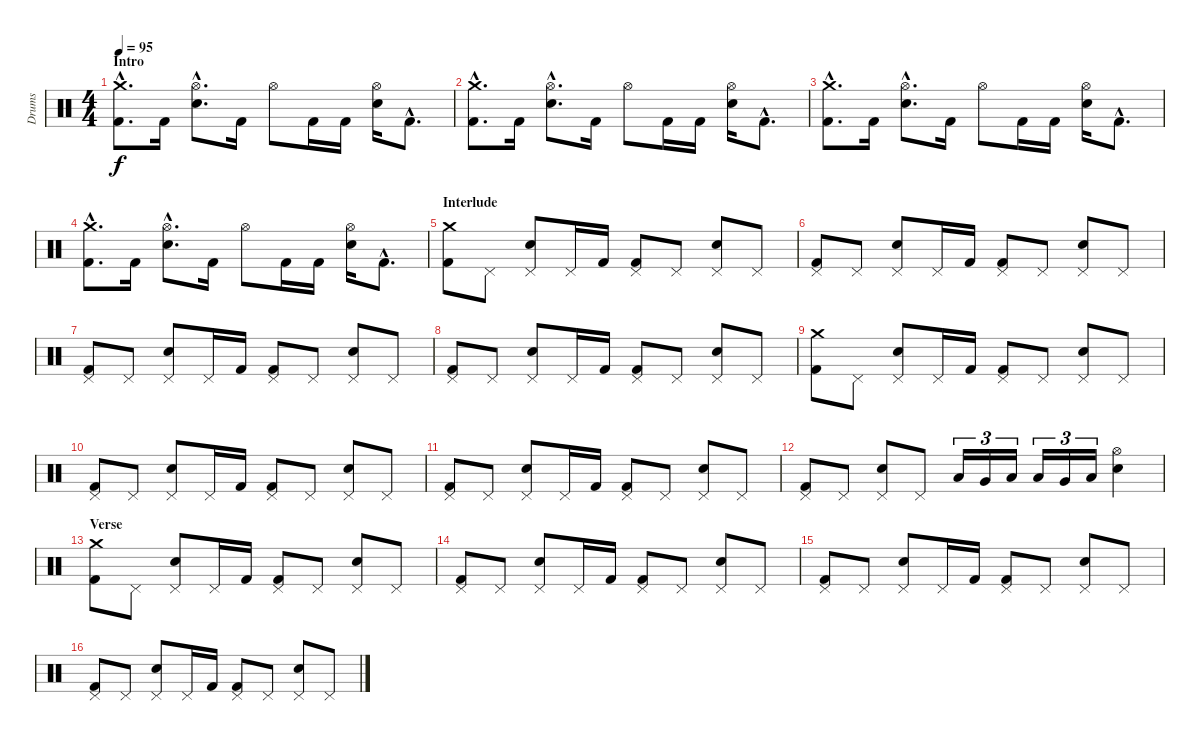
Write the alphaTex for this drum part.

\track ("Drums" "Drums") {instrument percussion}
\staff {score}
\articulation defaults
\ts (4 4)
\section ("" "Intro")
\tempo 95
\clef neutral
\ks c
("Crash medium (hit)"{hac} "Kick (hit) 2"{hac}).8{d dy f} "Kick (hit) 2".16 ("Hi-Hat (open)"{hac} "Electric Snare (hit)"{hac}).8{d} "Kick (hit) 2".16 "Hi-Hat (open)".8 "Kick (hit) 2".16 "Kick (hit) 2".16 ("Hi-Hat (open)" "Electric Snare (hit)").16 "Kick (hit) 2"{hac}.8{d} |
("Crash medium (hit)"{hac} "Kick (hit) 2"{hac}).8{d} "Kick (hit) 2".16 ("Hi-Hat (open)"{hac} "Electric Snare (hit)"{hac}).8{d} "Kick (hit) 2".16 "Hi-Hat (open)".8 "Kick (hit) 2".16 "Kick (hit) 2".16 ("Hi-Hat (open)" "Electric Snare (hit)").16 "Kick (hit) 2"{hac}.8{d} |
("Crash medium (hit)"{hac} "Kick (hit) 2"{hac}).8{d} "Kick (hit) 2".16 ("Hi-Hat (open)"{hac} "Electric Snare (hit)"{hac}).8{d} "Kick (hit) 2".16 "Hi-Hat (open)".8 "Kick (hit) 2".16 "Kick (hit) 2".16 ("Hi-Hat (open)" "Electric Snare (hit)").16 "Kick (hit) 2"{hac}.8{d} |
("Crash medium (hit)"{hac} "Kick (hit) 2"{hac}).8{d} "Kick (hit) 2".16 ("Hi-Hat (open)"{hac} "Electric Snare (hit)"{hac}).8{d} "Kick (hit) 2".16 "Hi-Hat (open)".8 "Kick (hit) 2".16 "Kick (hit) 2".16 ("Hi-Hat (open)" "Electric Snare (hit)").16 "Kick (hit) 2"{hac}.8{d} |
\section ("" "Interlude")
("Crash medium (hit)" "Kick (hit) 2").8 "Pedal Hi-Hat (hit)".8 ("Pedal Hi-Hat (hit)" "Electric Snare (hit)").8 "Pedal Hi-Hat (hit)".16 "Kick (hit) 2".16 ("Pedal Hi-Hat (hit)" "Kick (hit) 2").8 "Pedal Hi-Hat (hit)".8 ("Pedal Hi-Hat (hit)" "Electric Snare (hit)").8 "Pedal Hi-Hat (hit)".8 |
("Pedal Hi-Hat (hit)" "Kick (hit) 2").8 "Pedal Hi-Hat (hit)".8 ("Pedal Hi-Hat (hit)" "Electric Snare (hit)").8 "Pedal Hi-Hat (hit)".16 "Kick (hit) 2".16 ("Pedal Hi-Hat (hit)" "Kick (hit) 2").8 "Pedal Hi-Hat (hit)".8 ("Pedal Hi-Hat (hit)" "Electric Snare (hit)").8 "Pedal Hi-Hat (hit)".8 |
("Pedal Hi-Hat (hit)" "Kick (hit) 2").8 "Pedal Hi-Hat (hit)".8 ("Pedal Hi-Hat (hit)" "Electric Snare (hit)").8 "Pedal Hi-Hat (hit)".16 "Kick (hit) 2".16 ("Pedal Hi-Hat (hit)" "Kick (hit) 2").8 "Pedal Hi-Hat (hit)".8 ("Pedal Hi-Hat (hit)" "Electric Snare (hit)").8 "Pedal Hi-Hat (hit)".8 |
("Pedal Hi-Hat (hit)" "Kick (hit) 2").8 "Pedal Hi-Hat (hit)".8 ("Pedal Hi-Hat (hit)" "Electric Snare (hit)").8 "Pedal Hi-Hat (hit)".16 "Kick (hit) 2".16 ("Pedal Hi-Hat (hit)" "Kick (hit) 2").8 "Pedal Hi-Hat (hit)".8 ("Pedal Hi-Hat (hit)" "Electric Snare (hit)").8 "Pedal Hi-Hat (hit)".8 |
("Crash medium (hit)" "Kick (hit) 2").8 "Pedal Hi-Hat (hit)".8 ("Pedal Hi-Hat (hit)" "Electric Snare (hit)").8 "Pedal Hi-Hat (hit)".16 "Kick (hit) 2".16 ("Pedal Hi-Hat (hit)" "Kick (hit) 2").8 "Pedal Hi-Hat (hit)".8 ("Pedal Hi-Hat (hit)" "Electric Snare (hit)").8 "Pedal Hi-Hat (hit)".8 |
("Pedal Hi-Hat (hit)" "Kick (hit) 2").8 "Pedal Hi-Hat (hit)".8 ("Pedal Hi-Hat (hit)" "Electric Snare (hit)").8 "Pedal Hi-Hat (hit)".16 "Kick (hit) 2".16 ("Pedal Hi-Hat (hit)" "Kick (hit) 2").8 "Pedal Hi-Hat (hit)".8 ("Pedal Hi-Hat (hit)" "Electric Snare (hit)").8 "Pedal Hi-Hat (hit)".8 |
("Pedal Hi-Hat (hit)" "Kick (hit) 2").8 "Pedal Hi-Hat (hit)".8 ("Pedal Hi-Hat (hit)" "Electric Snare (hit)").8 "Pedal Hi-Hat (hit)".16 "Kick (hit) 2".16 ("Pedal Hi-Hat (hit)" "Kick (hit) 2").8 "Pedal Hi-Hat (hit)".8 ("Pedal Hi-Hat (hit)" "Electric Snare (hit)").8 "Pedal Hi-Hat (hit)".8 |
("Pedal Hi-Hat (hit)" "Kick (hit) 2").8 "Pedal Hi-Hat (hit)".8 ("Pedal Hi-Hat (hit)" "Electric Snare (hit)").8 "Pedal Hi-Hat (hit)".8 "Low Tom (hit)".16{tu (3 2)} "Very Low Tom (hit)".16{tu (3 2)} "Low Floor Tom (hit)".16{tu (3 2)} "Low Tom (hit)".16{tu (3 2)} "Very Low Tom (hit)".16{tu (3 2)} "Low Floor Tom (hit)".16{tu (3 2)} ("Hi-Hat (open)" "Electric Snare (hit)").4 |
\section ("" "Verse")
("Crash medium (hit)" "Kick (hit) 2").8 "Pedal Hi-Hat (hit)".8 ("Pedal Hi-Hat (hit)" "Electric Snare (hit)").8 "Pedal Hi-Hat (hit)".16 "Kick (hit) 2".16 ("Pedal Hi-Hat (hit)" "Kick (hit) 2").8 "Pedal Hi-Hat (hit)".8 ("Pedal Hi-Hat (hit)" "Electric Snare (hit)").8 "Pedal Hi-Hat (hit)".8 |
("Pedal Hi-Hat (hit)" "Kick (hit) 2").8 "Pedal Hi-Hat (hit)".8 ("Pedal Hi-Hat (hit)" "Electric Snare (hit)").8 "Pedal Hi-Hat (hit)".16 "Kick (hit) 2".16 ("Pedal Hi-Hat (hit)" "Kick (hit) 2").8 "Pedal Hi-Hat (hit)".8 ("Pedal Hi-Hat (hit)" "Electric Snare (hit)").8 "Pedal Hi-Hat (hit)".8 |
("Pedal Hi-Hat (hit)" "Kick (hit) 2").8 "Pedal Hi-Hat (hit)".8 ("Pedal Hi-Hat (hit)" "Electric Snare (hit)").8 "Pedal Hi-Hat (hit)".16 "Kick (hit) 2".16 ("Pedal Hi-Hat (hit)" "Kick (hit) 2").8 "Pedal Hi-Hat (hit)".8 ("Pedal Hi-Hat (hit)" "Electric Snare (hit)").8 "Pedal Hi-Hat (hit)".8 |
("Pedal Hi-Hat (hit)" "Kick (hit) 2").8 "Pedal Hi-Hat (hit)".8 ("Pedal Hi-Hat (hit)" "Electric Snare (hit)").8 "Pedal Hi-Hat (hit)".16 "Kick (hit) 2".16 ("Pedal Hi-Hat (hit)" "Kick (hit) 2").8 "Pedal Hi-Hat (hit)".8 ("Pedal Hi-Hat (hit)" "Electric Snare (hit)").8 "Pedal Hi-Hat (hit)".8
